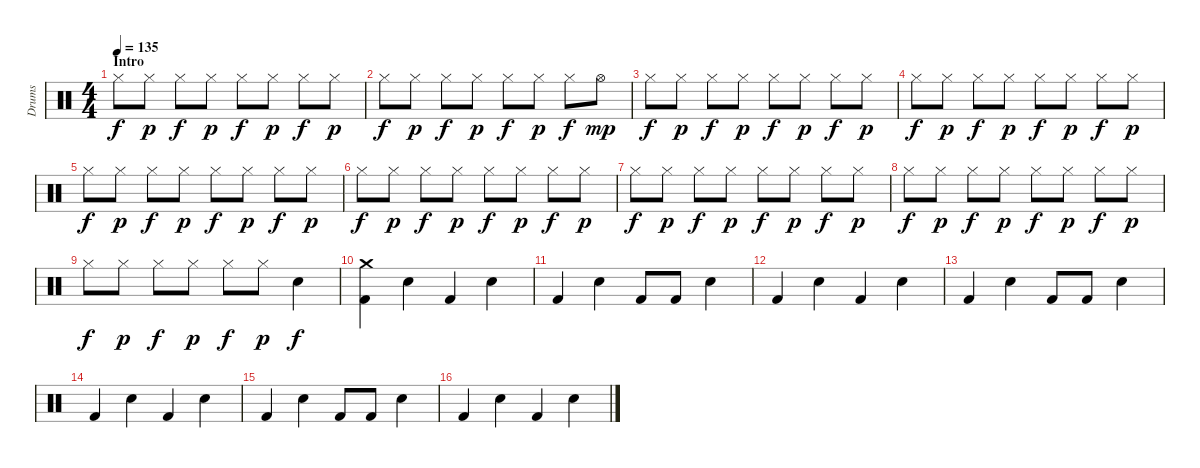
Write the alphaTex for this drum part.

\track ("Drums" "Drums") {instrument percussion}
\staff {score}
\articulation defaults
\ts (4 4)
\section ("" "Intro")
\tempo 135
\clef neutral
\ks c "Hi-Hat (closed)".8{dy f} "Hi-Hat (closed)".8{dy p} "Hi-Hat (closed)".8{dy f} "Hi-Hat (closed)".8{dy p} "Hi-Hat (closed)".8{dy f} "Hi-Hat (closed)".8{dy p} "Hi-Hat (closed)".8{dy f} "Hi-Hat (closed)".8{dy p}
|
"Hi-Hat (closed)".8{dy f} "Hi-Hat (closed)".8{dy p} "Hi-Hat (closed)".8{dy f} "Hi-Hat (closed)".8{dy p} "Hi-Hat (closed)".8{dy f} "Hi-Hat (closed)".8{dy p} "Hi-Hat (closed)".8{dy f} "Hi-Hat (open)".8{dy mp} |
"Hi-Hat (closed)".8{dy f} "Hi-Hat (closed)".8{dy p} "Hi-Hat (closed)".8{dy f} "Hi-Hat (closed)".8{dy p} "Hi-Hat (closed)".8{dy f} "Hi-Hat (closed)".8{dy p} "Hi-Hat (closed)".8{dy f} "Hi-Hat (closed)".8{dy p} |
"Hi-Hat (closed)".8{dy f} "Hi-Hat (closed)".8{dy p} "Hi-Hat (closed)".8{dy f} "Hi-Hat (closed)".8{dy p} "Hi-Hat (closed)".8{dy f} "Hi-Hat (closed)".8{dy p} "Hi-Hat (closed)".8{dy f} "Hi-Hat (closed)".8{dy p} |
"Hi-Hat (closed)".8{dy f} "Hi-Hat (closed)".8{dy p} "Hi-Hat (closed)".8{dy f} "Hi-Hat (closed)".8{dy p} "Hi-Hat (closed)".8{dy f} "Hi-Hat (closed)".8{dy p} "Hi-Hat (closed)".8{dy f} "Hi-Hat (closed)".8{dy p} |
"Hi-Hat (closed)".8{dy f} "Hi-Hat (closed)".8{dy p} "Hi-Hat (closed)".8{dy f} "Hi-Hat (closed)".8{dy p} "Hi-Hat (closed)".8{dy f} "Hi-Hat (closed)".8{dy p} "Hi-Hat (closed)".8{dy f} "Hi-Hat (closed)".8{dy p} |
"Hi-Hat (closed)".8{dy f} "Hi-Hat (closed)".8{dy p} "Hi-Hat (closed)".8{dy f} "Hi-Hat (closed)".8{dy p} "Hi-Hat (closed)".8{dy f} "Hi-Hat (closed)".8{dy p} "Hi-Hat (closed)".8{dy f} "Hi-Hat (closed)".8{dy p} |
"Hi-Hat (closed)".8{dy f} "Hi-Hat (closed)".8{dy p} "Hi-Hat (closed)".8{dy f} "Hi-Hat (closed)".8{dy p} "Hi-Hat (closed)".8{dy f} "Hi-Hat (closed)".8{dy p} "Hi-Hat (closed)".8{dy f} "Hi-Hat (closed)".8{dy p} |
"Hi-Hat (closed)".8{dy f} "Hi-Hat (closed)".8{dy p} "Hi-Hat (closed)".8{dy f} "Hi-Hat (closed)".8{dy p} "Hi-Hat (closed)".8{dy f} "Hi-Hat (closed)".8{dy p} "Snare (hit) 2".4{dy f} |
("Crash medium (hit)" "Kick (hit) 2").4 "Snare (hit) 2".4 "Kick (hit) 2".4 "Snare (hit) 2".4 |
"Kick (hit) 2".4 "Snare (hit) 2".4 "Kick (hit) 2".8 "Kick (hit) 2".8 "Snare (hit) 2".4 |
"Kick (hit) 2".4 "Snare (hit) 2".4 "Kick (hit) 2".4 "Snare (hit) 2".4 |
"Kick (hit) 2".4 "Snare (hit) 2".4 "Kick (hit) 2".8 "Kick (hit) 2".8 "Snare (hit) 2".4 |
"Kick (hit) 2".4 "Snare (hit) 2".4 "Kick (hit) 2".4 "Snare (hit) 2".4 |
"Kick (hit) 2".4 "Snare (hit) 2".4 "Kick (hit) 2".8 "Kick (hit) 2".8 "Snare (hit) 2".4 |
"Kick (hit) 2".4 "Snare (hit) 2".4 "Kick (hit) 2".4 "Snare (hit) 2".4
